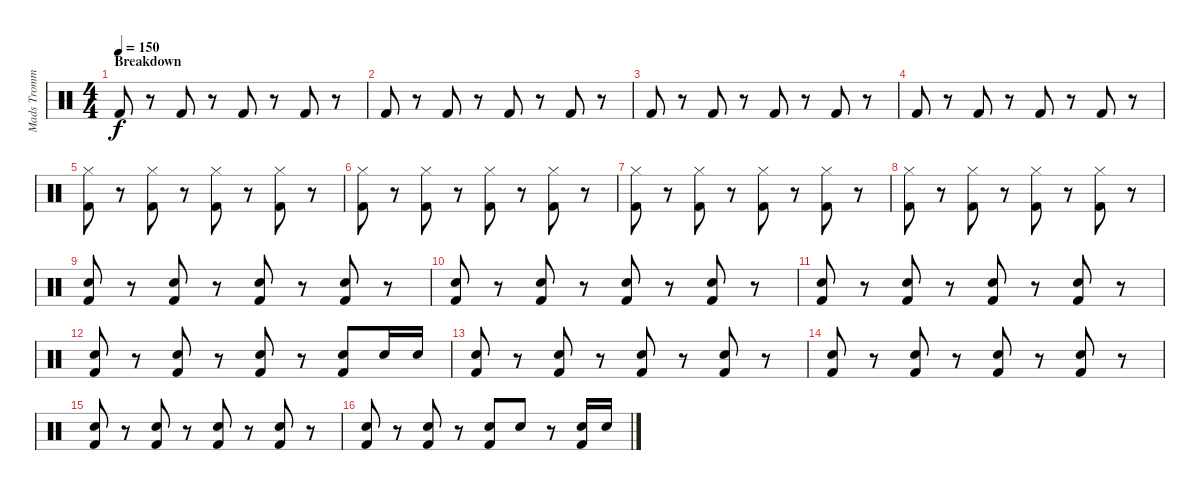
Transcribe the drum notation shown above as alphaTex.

\track ("Mads Trommer" "Mads Tromm") {instrument percussion}
\staff {score}
\articulation defaults
\ts (4 4)
\section ("" "Breakdown")
\tempo 150
\clef neutral
\ks c "Kick (hit) 2".8{dy f}
r.8 "Kick (hit) 2".8 r.8 "Kick (hit) 2".8 r.8 "Kick (hit) 2".8 r.8 |
"Kick (hit) 2".8 r.8 "Kick (hit) 2".8 r.8 "Kick (hit) 2".8 r.8 "Kick (hit) 2".8 r.8 |
"Kick (hit) 2".8 r.8 "Kick (hit) 2".8 r.8 "Kick (hit) 2".8 r.8 "Kick (hit) 2".8 r.8 |
"Kick (hit) 2".8 r.8 "Kick (hit) 2".8 r.8 "Kick (hit) 2".8 r.8 "Kick (hit) 2".8 r.8 |
("Hi-Hat (closed)" "Kick (hit) 2").8 r.8 ("Hi-Hat (closed)" "Kick (hit) 2").8 r.8 ("Hi-Hat (closed)" "Kick (hit) 2").8 r.8 ("Hi-Hat (closed)" "Kick (hit) 2").8 r.8 |
("Hi-Hat (closed)" "Kick (hit) 2").8 r.8 ("Hi-Hat (closed)" "Kick (hit) 2").8 r.8 ("Hi-Hat (closed)" "Kick (hit) 2").8 r.8 ("Hi-Hat (closed)" "Kick (hit) 2").8 r.8 |
("Hi-Hat (closed)" "Kick (hit) 2").8 r.8 ("Hi-Hat (closed)" "Kick (hit) 2").8 r.8 ("Hi-Hat (closed)" "Kick (hit) 2").8 r.8 ("Hi-Hat (closed)" "Kick (hit) 2").8 r.8 |
("Hi-Hat (closed)" "Kick (hit) 2").8 r.8 ("Hi-Hat (closed)" "Kick (hit) 2").8 r.8 ("Hi-Hat (closed)" "Kick (hit) 2").8 r.8 ("Hi-Hat (closed)" "Kick (hit) 2").8 r.8 |
("Electric Snare (hit)" "Kick (hit) 2").8 r.8 ("Electric Snare (hit)" "Kick (hit) 2").8 r.8 ("Electric Snare (hit)" "Kick (hit) 2").8 r.8 ("Electric Snare (hit)" "Kick (hit) 2").8 r.8 |
("Electric Snare (hit)" "Kick (hit) 2").8 r.8 ("Electric Snare (hit)" "Kick (hit) 2").8 r.8 ("Electric Snare (hit)" "Kick (hit) 2").8 r.8 ("Electric Snare (hit)" "Kick (hit) 2").8 r.8 |
("Electric Snare (hit)" "Kick (hit) 2").8 r.8 ("Electric Snare (hit)" "Kick (hit) 2").8 r.8 ("Electric Snare (hit)" "Kick (hit) 2").8 r.8 ("Electric Snare (hit)" "Kick (hit) 2").8 r.8 |
("Electric Snare (hit)" "Kick (hit) 2").8 r.8 ("Electric Snare (hit)" "Kick (hit) 2").8 r.8 ("Electric Snare (hit)" "Kick (hit) 2").8 r.8 ("Electric Snare (hit)" "Kick (hit) 2").8 "Electric Snare (hit)".16 "Electric Snare (hit)".16 |
("Electric Snare (hit)" "Kick (hit) 2").8 r.8 ("Electric Snare (hit)" "Kick (hit) 2").8 r.8 ("Electric Snare (hit)" "Kick (hit) 2").8 r.8 ("Electric Snare (hit)" "Kick (hit) 2").8 r.8 |
("Electric Snare (hit)" "Kick (hit) 2").8 r.8 ("Electric Snare (hit)" "Kick (hit) 2").8 r.8 ("Electric Snare (hit)" "Kick (hit) 2").8 r.8 ("Electric Snare (hit)" "Kick (hit) 2").8 r.8 |
("Electric Snare (hit)" "Kick (hit) 2").8 r.8 ("Electric Snare (hit)" "Kick (hit) 2").8 r.8 ("Electric Snare (hit)" "Kick (hit) 2").8 r.8 ("Electric Snare (hit)" "Kick (hit) 2").8 r.8 |
("Electric Snare (hit)" "Kick (hit) 2").8 r.8 ("Electric Snare (hit)" "Kick (hit) 2").8 r.8 ("Electric Snare (hit)" "Kick (hit) 2").8 "Electric Snare (hit)".8 r.8 ("Electric Snare (hit)" "Kick (hit) 2").16 "Electric Snare (hit)".16
